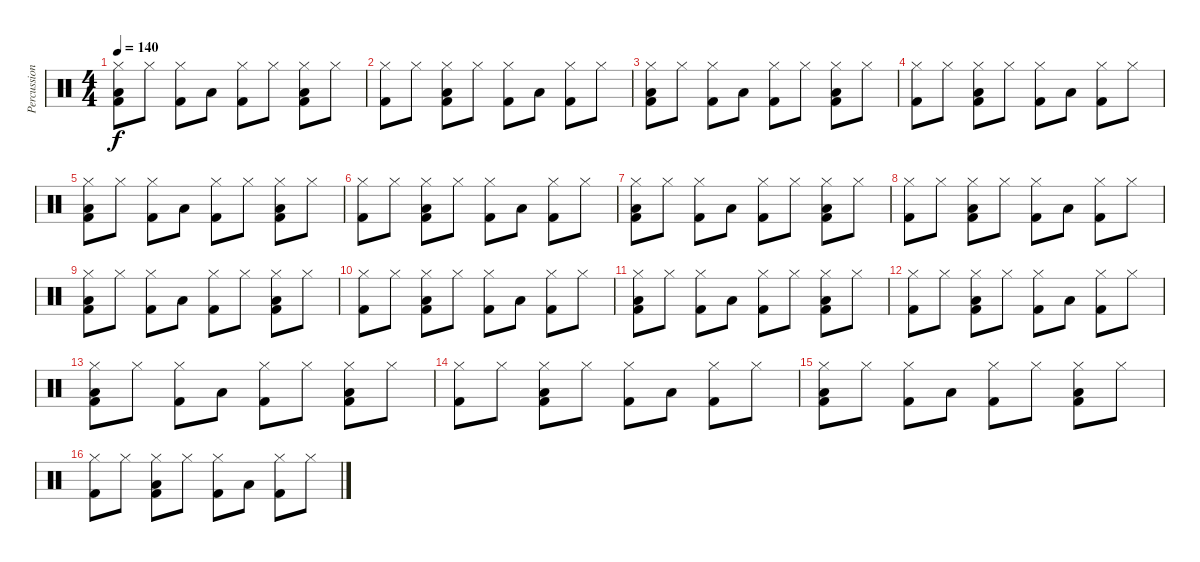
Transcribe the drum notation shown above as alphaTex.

\track ("Percussion" "Percussion") {instrument percussion}
\staff {score}
\articulation defaults
\ts (4 4)
\tempo 140
\clef neutral
\ks c
("Hi-Hat (closed)" "Low Floor Tom (hit)" "Kick (hit) 2").8{dy f} "Hi-Hat (closed)".8 ("Hi-Hat (closed)" "Kick (hit) 2").8 "Low Floor Tom (hit)".8 ("Hi-Hat (closed)" "Kick (hit) 2").8 "Hi-Hat (closed)".8 ("Hi-Hat (closed)" "Low Floor Tom (hit)" "Kick (hit) 2").8 "Hi-Hat (closed)".8 |
("Hi-Hat (closed)" "Kick (hit) 2").8 "Hi-Hat (closed)".8 ("Hi-Hat (closed)" "Low Floor Tom (hit)" "Kick (hit) 2").8 "Hi-Hat (closed)".8 ("Hi-Hat (closed)" "Kick (hit) 2").8 "Low Floor Tom (hit)".8 ("Hi-Hat (closed)" "Kick (hit) 2").8 "Hi-Hat (closed)".8 |
("Hi-Hat (closed)" "Low Floor Tom (hit)" "Kick (hit) 2").8 "Hi-Hat (closed)".8 ("Hi-Hat (closed)" "Kick (hit) 2").8 "Low Floor Tom (hit)".8 ("Hi-Hat (closed)" "Kick (hit) 2").8 "Hi-Hat (closed)".8 ("Hi-Hat (closed)" "Low Floor Tom (hit)" "Kick (hit) 2").8 "Hi-Hat (closed)".8 |
("Hi-Hat (closed)" "Kick (hit) 2").8 "Hi-Hat (closed)".8 ("Hi-Hat (closed)" "Low Floor Tom (hit)" "Kick (hit) 2").8 "Hi-Hat (closed)".8 ("Hi-Hat (closed)" "Kick (hit) 2").8 "Low Floor Tom (hit)".8 ("Hi-Hat (closed)" "Kick (hit) 2").8 "Hi-Hat (closed)".8 |
("Hi-Hat (closed)" "Low Floor Tom (hit)" "Kick (hit) 2").8 "Hi-Hat (closed)".8 ("Hi-Hat (closed)" "Kick (hit) 2").8 "Low Floor Tom (hit)".8 ("Hi-Hat (closed)" "Kick (hit) 2").8 "Hi-Hat (closed)".8 ("Hi-Hat (closed)" "Low Floor Tom (hit)" "Kick (hit) 2").8 "Hi-Hat (closed)".8 |
("Hi-Hat (closed)" "Kick (hit) 2").8 "Hi-Hat (closed)".8 ("Hi-Hat (closed)" "Low Floor Tom (hit)" "Kick (hit) 2").8 "Hi-Hat (closed)".8 ("Hi-Hat (closed)" "Kick (hit) 2").8 "Low Floor Tom (hit)".8 ("Hi-Hat (closed)" "Kick (hit) 2").8 "Hi-Hat (closed)".8 |
("Hi-Hat (closed)" "Low Floor Tom (hit)" "Kick (hit) 2").8 "Hi-Hat (closed)".8 ("Hi-Hat (closed)" "Kick (hit) 2").8 "Low Floor Tom (hit)".8 ("Hi-Hat (closed)" "Kick (hit) 2").8 "Hi-Hat (closed)".8 ("Hi-Hat (closed)" "Low Floor Tom (hit)" "Kick (hit) 2").8 "Hi-Hat (closed)".8 |
("Hi-Hat (closed)" "Kick (hit) 2").8 "Hi-Hat (closed)".8 ("Hi-Hat (closed)" "Low Floor Tom (hit)" "Kick (hit) 2").8 "Hi-Hat (closed)".8 ("Hi-Hat (closed)" "Kick (hit) 2").8 "Low Floor Tom (hit)".8 ("Hi-Hat (closed)" "Kick (hit) 2").8 "Hi-Hat (closed)".8 |
("Hi-Hat (closed)" "Low Floor Tom (hit)" "Kick (hit) 2").8 "Hi-Hat (closed)".8 ("Hi-Hat (closed)" "Kick (hit) 2").8 "Low Floor Tom (hit)".8 ("Hi-Hat (closed)" "Kick (hit) 2").8 "Hi-Hat (closed)".8 ("Hi-Hat (closed)" "Low Floor Tom (hit)" "Kick (hit) 2").8 "Hi-Hat (closed)".8 |
("Hi-Hat (closed)" "Kick (hit) 2").8 "Hi-Hat (closed)".8 ("Hi-Hat (closed)" "Low Floor Tom (hit)" "Kick (hit) 2").8 "Hi-Hat (closed)".8 ("Hi-Hat (closed)" "Kick (hit) 2").8 "Low Floor Tom (hit)".8 ("Hi-Hat (closed)" "Kick (hit) 2").8 "Hi-Hat (closed)".8 |
("Hi-Hat (closed)" "Low Floor Tom (hit)" "Kick (hit) 2").8 "Hi-Hat (closed)".8 ("Hi-Hat (closed)" "Kick (hit) 2").8 "Low Floor Tom (hit)".8 ("Hi-Hat (closed)" "Kick (hit) 2").8 "Hi-Hat (closed)".8 ("Hi-Hat (closed)" "Low Floor Tom (hit)" "Kick (hit) 2").8 "Hi-Hat (closed)".8 |
("Hi-Hat (closed)" "Kick (hit) 2").8 "Hi-Hat (closed)".8 ("Hi-Hat (closed)" "Low Floor Tom (hit)" "Kick (hit) 2").8 "Hi-Hat (closed)".8 ("Hi-Hat (closed)" "Kick (hit) 2").8 "Low Floor Tom (hit)".8 ("Hi-Hat (closed)" "Kick (hit) 2").8 "Hi-Hat (closed)".8 |
("Hi-Hat (closed)" "Low Floor Tom (hit)" "Kick (hit) 2").8 "Hi-Hat (closed)".8 ("Hi-Hat (closed)" "Kick (hit) 2").8 "Low Floor Tom (hit)".8 ("Hi-Hat (closed)" "Kick (hit) 2").8 "Hi-Hat (closed)".8 ("Hi-Hat (closed)" "Low Floor Tom (hit)" "Kick (hit) 2").8 "Hi-Hat (closed)".8 |
("Hi-Hat (closed)" "Kick (hit) 2").8 "Hi-Hat (closed)".8 ("Hi-Hat (closed)" "Low Floor Tom (hit)" "Kick (hit) 2").8 "Hi-Hat (closed)".8 ("Hi-Hat (closed)" "Kick (hit) 2").8 "Low Floor Tom (hit)".8 ("Hi-Hat (closed)" "Kick (hit) 2").8 "Hi-Hat (closed)".8 |
("Hi-Hat (closed)" "Low Floor Tom (hit)" "Kick (hit) 2").8 "Hi-Hat (closed)".8 ("Hi-Hat (closed)" "Kick (hit) 2").8 "Low Floor Tom (hit)".8 ("Hi-Hat (closed)" "Kick (hit) 2").8 "Hi-Hat (closed)".8 ("Hi-Hat (closed)" "Low Floor Tom (hit)" "Kick (hit) 2").8 "Hi-Hat (closed)".8 |
("Hi-Hat (closed)" "Kick (hit) 2").8 "Hi-Hat (closed)".8 ("Hi-Hat (closed)" "Low Floor Tom (hit)" "Kick (hit) 2").8 "Hi-Hat (closed)".8 ("Hi-Hat (closed)" "Kick (hit) 2").8 "Low Floor Tom (hit)".8 ("Hi-Hat (closed)" "Kick (hit) 2").8 "Hi-Hat (closed)".8
